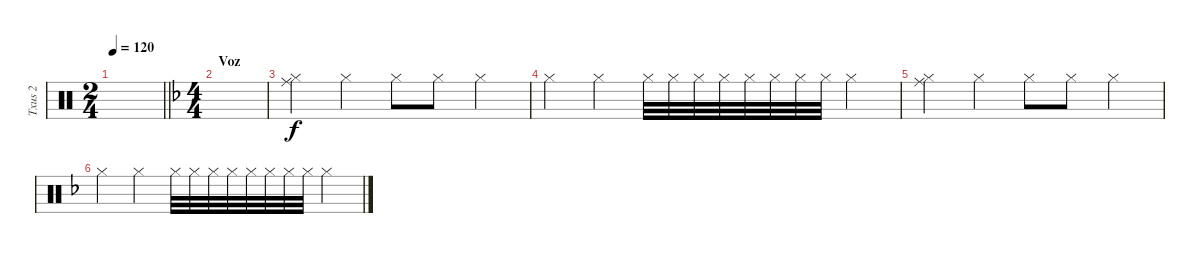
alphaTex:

\track ("Txus 2" "Txus 2") {instrument percussion}
\staff {score}
\articulation defaults
\ts (2 4)
\tempo 120
\clef neutral
\barLineRight lightlight
\ks c
|
\ts (4 4)
\section ("" "Voz")
\ks dminor
|
("Hi-Hat (closed)" "Ride (middle)").4{dy f} "Hi-Hat (closed)".4 "Hi-Hat (closed)".8 "Hi-Hat (closed)".8 "Hi-Hat (closed)".4 |
"Hi-Hat (closed)".4 "Hi-Hat (closed)".4 "Hi-Hat (closed)".32 "Hi-Hat (closed)".32 "Hi-Hat (closed)".32 "Hi-Hat (closed)".32 "Hi-Hat (closed)".32 "Hi-Hat (closed)".32 "Hi-Hat (closed)".32 "Hi-Hat (closed)".32 "Hi-Hat (closed)".4 |
("Hi-Hat (closed)" "Ride (middle)").4 "Hi-Hat (closed)".4 "Hi-Hat (closed)".8 "Hi-Hat (closed)".8 "Hi-Hat (closed)".4 |
"Hi-Hat (closed)".4 "Hi-Hat (closed)".4 "Hi-Hat (closed)".32 "Hi-Hat (closed)".32 "Hi-Hat (closed)".32 "Hi-Hat (closed)".32 "Hi-Hat (closed)".32 "Hi-Hat (closed)".32 "Hi-Hat (closed)".32 "Hi-Hat (closed)".32 "Hi-Hat (closed)".4
